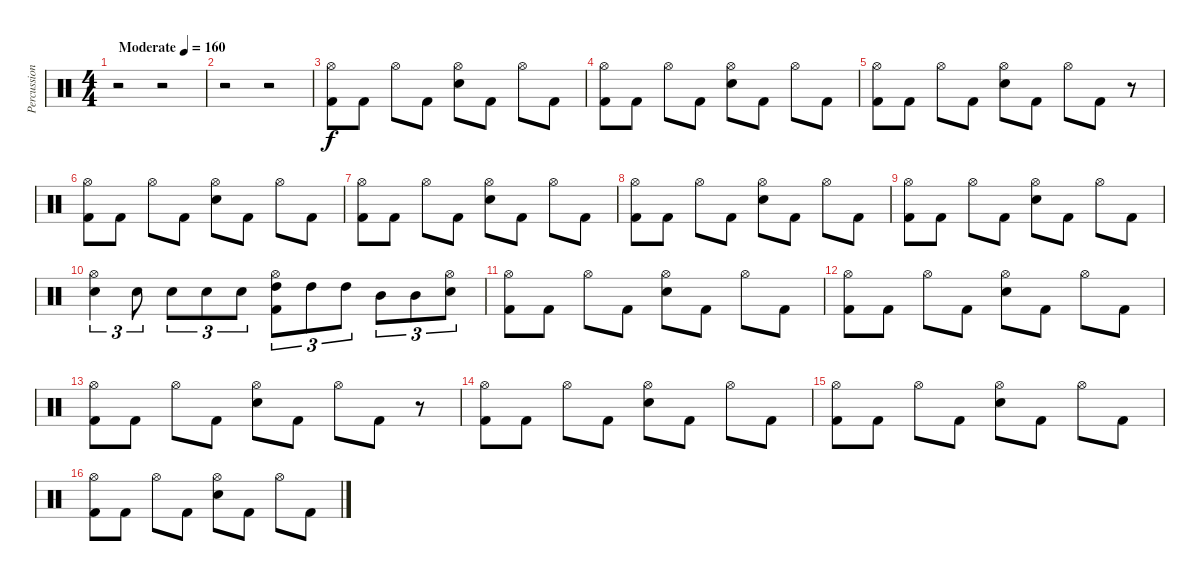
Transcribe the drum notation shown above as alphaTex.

\track ("Percussion" "Percussion") {instrument percussion}
\staff {score}
\articulation defaults
\ts (4 4)
\tempo (160 "Moderate")
\clef neutral
\ks c
r.2{dy f} r.2 |
r.2 r.2 |
("Hi-Hat (open)" "Kick (hit) 2").8 "Kick (hit) 2".8 "Hi-Hat (open)".8 "Kick (hit) 2".8 ("Hi-Hat (open)" "Snare (hit) 2").8 "Kick (hit) 2".8 "Hi-Hat (open)".8 "Kick (hit) 2".8 |
("Hi-Hat (open)" "Kick (hit) 2").8 "Kick (hit) 2".8 "Hi-Hat (open)".8 "Kick (hit) 2".8 ("Hi-Hat (open)" "Snare (hit) 2").8 "Kick (hit) 2".8 "Hi-Hat (open)".8 "Kick (hit) 2".8 |
("Hi-Hat (open)" "Kick (hit) 2").8 "Kick (hit) 2".8 "Hi-Hat (open)".8 "Kick (hit) 2".8 ("Hi-Hat (open)" "Snare (hit) 2").8 "Kick (hit) 2".8 "Hi-Hat (open)".8 "Kick (hit) 2".8 r.8 |
("Hi-Hat (open)" "Kick (hit) 2").8 "Kick (hit) 2".8 "Hi-Hat (open)".8 "Kick (hit) 2".8 ("Hi-Hat (open)" "Snare (hit) 2").8 "Kick (hit) 2".8 "Hi-Hat (open)".8 "Kick (hit) 2".8 |
("Hi-Hat (open)" "Kick (hit) 2").8 "Kick (hit) 2".8 "Hi-Hat (open)".8 "Kick (hit) 2".8 ("Hi-Hat (open)" "Snare (hit) 2").8 "Kick (hit) 2".8 "Hi-Hat (open)".8 "Kick (hit) 2".8 |
("Hi-Hat (open)" "Kick (hit) 2").8 "Kick (hit) 2".8 "Hi-Hat (open)".8 "Kick (hit) 2".8 ("Hi-Hat (open)" "Snare (hit) 2").8 "Kick (hit) 2".8 "Hi-Hat (open)".8 "Kick (hit) 2".8 |
("Hi-Hat (open)" "Kick (hit) 2").8 "Kick (hit) 2".8 "Hi-Hat (open)".8 "Kick (hit) 2".8 ("Hi-Hat (open)" "Snare (hit) 2").8 "Kick (hit) 2".8 "Hi-Hat (open)".8 "Kick (hit) 2".8 |
("Hi-Hat (open)" "Snare (hit) 2").4{tu (3 2)} "Snare (hit) 2".8{tu (3 2)} "Snare (hit) 2".8{tu (3 2)} "Snare (hit) 2".8{tu (3 2)} "Snare (hit) 2".8{tu (3 2)} ("Hi-Hat (open)" "High Tom (hit)" "Kick (hit) 2").8{tu (3 2)} "High Tom (hit)".8{tu (3 2)} "High Tom (hit)".8{tu (3 2)} "Mid Tom (hit)".8{tu (3 2)} "Mid Tom (hit)".8{tu (3 2)} ("Hi-Hat (open)" "Snare (hit) 2").8{tu (3 2)} |
("Hi-Hat (open)" "Kick (hit) 2").8 "Kick (hit) 2".8 "Hi-Hat (open)".8 "Kick (hit) 2".8 ("Hi-Hat (open)" "Snare (hit) 2").8 "Kick (hit) 2".8 "Hi-Hat (open)".8 "Kick (hit) 2".8 |
("Hi-Hat (open)" "Kick (hit) 2").8 "Kick (hit) 2".8 "Hi-Hat (open)".8 "Kick (hit) 2".8 ("Hi-Hat (open)" "Snare (hit) 2").8 "Kick (hit) 2".8 "Hi-Hat (open)".8 "Kick (hit) 2".8 |
("Hi-Hat (open)" "Kick (hit) 2").8 "Kick (hit) 2".8 "Hi-Hat (open)".8 "Kick (hit) 2".8 ("Hi-Hat (open)" "Snare (hit) 2").8 "Kick (hit) 2".8 "Hi-Hat (open)".8 "Kick (hit) 2".8 r.8 |
("Hi-Hat (open)" "Kick (hit) 2").8 "Kick (hit) 2".8 "Hi-Hat (open)".8 "Kick (hit) 2".8 ("Hi-Hat (open)" "Snare (hit) 2").8 "Kick (hit) 2".8 "Hi-Hat (open)".8 "Kick (hit) 2".8 |
("Hi-Hat (open)" "Kick (hit) 2").8 "Kick (hit) 2".8 "Hi-Hat (open)".8 "Kick (hit) 2".8 ("Hi-Hat (open)" "Snare (hit) 2").8 "Kick (hit) 2".8 "Hi-Hat (open)".8 "Kick (hit) 2".8 |
("Hi-Hat (open)" "Kick (hit) 2").8 "Kick (hit) 2".8 "Hi-Hat (open)".8 "Kick (hit) 2".8 ("Hi-Hat (open)" "Snare (hit) 2").8 "Kick (hit) 2".8 "Hi-Hat (open)".8 "Kick (hit) 2".8
